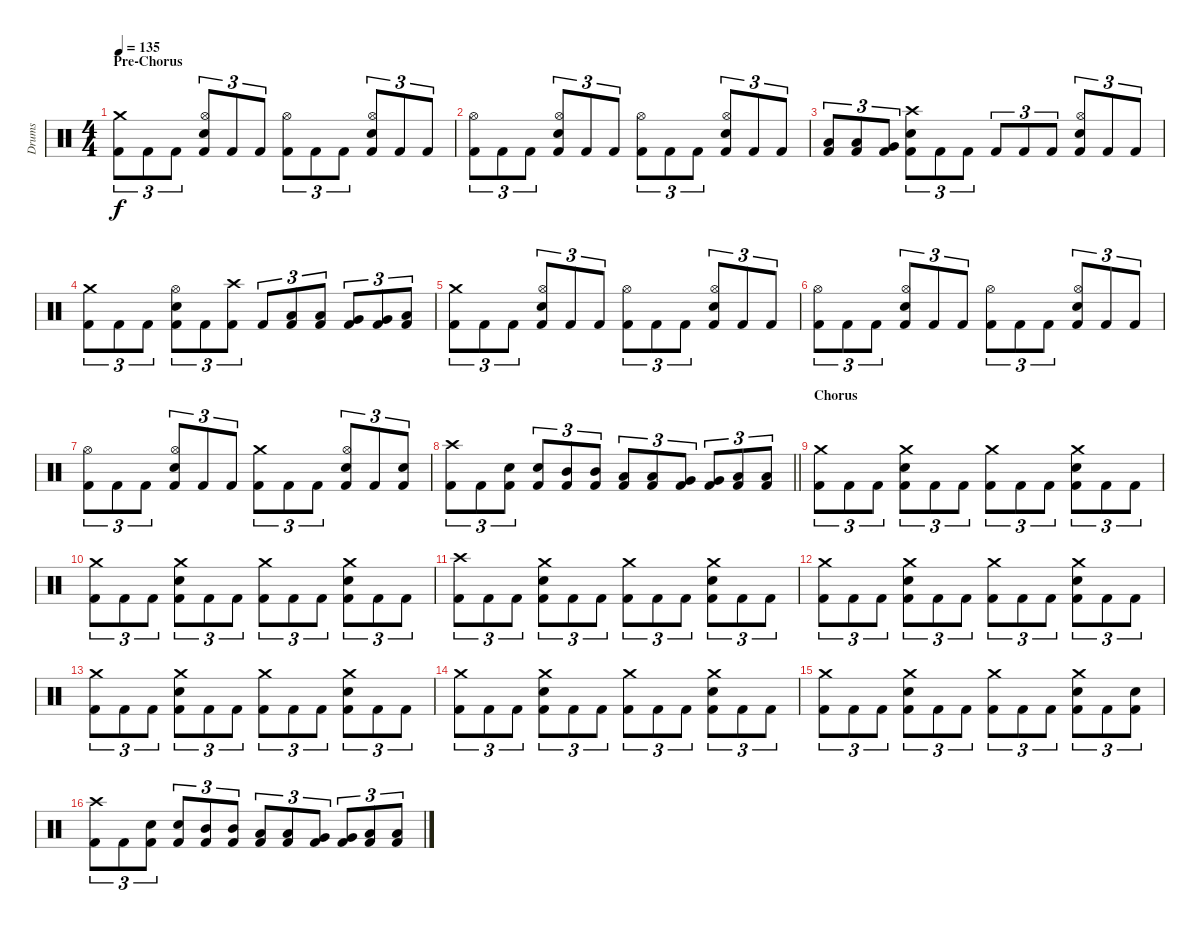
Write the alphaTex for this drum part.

\track ("Drums" "Drums") {instrument percussion}
\staff {score}
\articulation defaults
\ts (4 4)
\section ("" "Pre-Chorus")
\tempo 135
\clef neutral
\ks c
("Crash medium (hit)" "Kick (hit) 2").8{tu (3 2) dy f} "Kick (hit) 2".8{tu (3 2)} "Kick (hit) 2".8{tu (3 2)} ("Hi-Hat (open)" "Electric Snare (hit)" "Kick (hit) 2").8{tu (3 2)} "Kick (hit) 2".8{tu (3 2)} "Kick (hit) 2".8{tu (3 2)} ("Hi-Hat (open)" "Kick (hit) 2").8{tu (3 2)} "Kick (hit) 2".8{tu (3 2)} "Kick (hit) 2".8{tu (3 2)} ("Hi-Hat (open)" "Electric Snare (hit)" "Kick (hit) 2").8{tu (3 2)} "Kick (hit) 2".8{tu (3 2)} "Kick (hit) 2".8{tu (3 2)} |
("Hi-Hat (open)" "Kick (hit) 2").8{tu (3 2)} "Kick (hit) 2".8{tu (3 2)} "Kick (hit) 2".8{tu (3 2)} ("Hi-Hat (open)" "Electric Snare (hit)" "Kick (hit) 2").8{tu (3 2)} "Kick (hit) 2".8{tu (3 2)} "Kick (hit) 2".8{tu (3 2)} ("Hi-Hat (open)" "Kick (hit) 2").8{tu (3 2)} "Kick (hit) 2".8{tu (3 2)} "Kick (hit) 2".8{tu (3 2)} ("Hi-Hat (open)" "Electric Snare (hit)" "Kick (hit) 2").8{tu (3 2)} "Kick (hit) 2".8{tu (3 2)} "Kick (hit) 2".8{tu (3 2)} |
("Low Tom (hit)" "Kick (hit) 2").8{tu (3 2)} ("Low Tom (hit)" "Kick (hit) 2").8{tu (3 2)} ("Very Low Tom (hit)" "Kick (hit) 2").8{tu (3 2)} ("Crash high (hit)" "Electric Snare (hit)" "Kick (hit) 2").8{tu (3 2)} "Kick (hit) 2".8{tu (3 2)} "Kick (hit) 2".8{tu (3 2)} "Kick (hit) 2".8{tu (3 2)} "Kick (hit) 2".8{tu (3 2)} "Kick (hit) 2".8{tu (3 2)} ("Hi-Hat (open)" "Electric Snare (hit)" "Kick (hit) 2").8{tu (3 2)} "Kick (hit) 2".8{tu (3 2)} "Kick (hit) 2".8{tu (3 2)} |
("Crash medium (hit)" "Kick (hit) 2").8{tu (3 2)} "Kick (hit) 2".8{tu (3 2)} "Kick (hit) 2".8{tu (3 2)} ("Hi-Hat (open)" "Electric Snare (hit)" "Kick (hit) 2").8{tu (3 2)} "Kick (hit) 2".8{tu (3 2)} ("Crash high (hit)" "Kick (hit) 2").8{tu (3 2)} "Kick (hit) 2".8{tu (3 2)} ("Low Tom (hit)" "Kick (hit) 2").8{tu (3 2)} ("Low Tom (hit)" "Kick (hit) 2").8{tu (3 2)} ("Very Low Tom (hit)" "Kick (hit) 2").8{tu (3 2)} ("Very Low Tom (hit)" "Kick (hit) 2").8{tu (3 2)} ("Low Floor Tom (hit)" "Kick (hit) 2").8{tu (3 2)} |
("Crash medium (hit)" "Kick (hit) 2").8{tu (3 2)} "Kick (hit) 2".8{tu (3 2)} "Kick (hit) 2".8{tu (3 2)} ("Hi-Hat (open)" "Electric Snare (hit)" "Kick (hit) 2").8{tu (3 2)} "Kick (hit) 2".8{tu (3 2)} "Kick (hit) 2".8{tu (3 2)} ("Hi-Hat (open)" "Kick (hit) 2").8{tu (3 2)} "Kick (hit) 2".8{tu (3 2)} "Kick (hit) 2".8{tu (3 2)} ("Hi-Hat (open)" "Electric Snare (hit)" "Kick (hit) 2").8{tu (3 2)} "Kick (hit) 2".8{tu (3 2)} "Kick (hit) 2".8{tu (3 2)} |
("Hi-Hat (open)" "Kick (hit) 2").8{tu (3 2)} "Kick (hit) 2".8{tu (3 2)} "Kick (hit) 2".8{tu (3 2)} ("Hi-Hat (open)" "Electric Snare (hit)" "Kick (hit) 2").8{tu (3 2)} "Kick (hit) 2".8{tu (3 2)} "Kick (hit) 2".8{tu (3 2)} ("Hi-Hat (open)" "Kick (hit) 2").8{tu (3 2)} "Kick (hit) 2".8{tu (3 2)} "Kick (hit) 2".8{tu (3 2)} ("Hi-Hat (open)" "Electric Snare (hit)" "Kick (hit) 2").8{tu (3 2)} "Kick (hit) 2".8{tu (3 2)} "Kick (hit) 2".8{tu (3 2)} |
("Hi-Hat (open)" "Kick (hit) 2").8{tu (3 2)} "Kick (hit) 2".8{tu (3 2)} "Kick (hit) 2".8{tu (3 2)} ("Hi-Hat (open)" "Electric Snare (hit)" "Kick (hit) 2").8{tu (3 2)} "Kick (hit) 2".8{tu (3 2)} "Kick (hit) 2".8{tu (3 2)} ("Crash medium (hit)" "Kick (hit) 2").8{tu (3 2)} "Kick (hit) 2".8{tu (3 2)} "Kick (hit) 2".8{tu (3 2)} ("Hi-Hat (open)" "Electric Snare (hit)" "Kick (hit) 2").8{tu (3 2)} "Kick (hit) 2".8{tu (3 2)} ("Electric Snare (hit)" "Kick (hit) 2").8{tu (3 2)} |
\barLineRight lightlight
("Crash high (hit)" "Kick (hit) 2").8{tu (3 2)} "Kick (hit) 2".8{tu (3 2)} ("Electric Snare (hit)" "Kick (hit) 2").8{tu (3 2)} ("Electric Snare (hit)" "Kick (hit) 2").8{tu (3 2)} ("Mid Tom (hit)" "Kick (hit) 2").8{tu (3 2)} ("Mid Tom (hit)" "Kick (hit) 2").8{tu (3 2)} ("Low Tom (hit)" "Kick (hit) 2").8{tu (3 2)} ("Low Tom (hit)" "Kick (hit) 2").8{tu (3 2)} ("Very Low Tom (hit)" "Kick (hit) 2").8{tu (3 2)} ("Very Low Tom (hit)" "Kick (hit) 2").8{tu (3 2)} ("Low Floor Tom (hit)" "Kick (hit) 2").8{tu (3 2)} ("Low Floor Tom (hit)" "Kick (hit) 2").8{tu (3 2)} |
\section ("" "Chorus")
("Crash medium (hit)" "Kick (hit) 2").8{tu (3 2)} "Kick (hit) 2".8{tu (3 2)} "Kick (hit) 2".8{tu (3 2)} ("Crash medium (hit)" "Electric Snare (hit)" "Kick (hit) 2").8{tu (3 2)} "Kick (hit) 2".8{tu (3 2)} "Kick (hit) 2".8{tu (3 2)} ("Crash medium (hit)" "Kick (hit) 2").8{tu (3 2)} "Kick (hit) 2".8{tu (3 2)} "Kick (hit) 2".8{tu (3 2)} ("Crash medium (hit)" "Electric Snare (hit)" "Kick (hit) 2").8{tu (3 2)} "Kick (hit) 2".8{tu (3 2)} "Kick (hit) 2".8{tu (3 2)} |
("Crash medium (hit)" "Kick (hit) 2").8{tu (3 2)} "Kick (hit) 2".8{tu (3 2)} "Kick (hit) 2".8{tu (3 2)} ("Crash medium (hit)" "Electric Snare (hit)" "Kick (hit) 2").8{tu (3 2)} "Kick (hit) 2".8{tu (3 2)} "Kick (hit) 2".8{tu (3 2)} ("Crash medium (hit)" "Kick (hit) 2").8{tu (3 2)} "Kick (hit) 2".8{tu (3 2)} "Kick (hit) 2".8{tu (3 2)} ("Crash medium (hit)" "Electric Snare (hit)" "Kick (hit) 2").8{tu (3 2)} "Kick (hit) 2".8{tu (3 2)} "Kick (hit) 2".8{tu (3 2)} |
("Crash high (hit)" "Kick (hit) 2").8{tu (3 2)} "Kick (hit) 2".8{tu (3 2)} "Kick (hit) 2".8{tu (3 2)} ("Crash medium (hit)" "Electric Snare (hit)" "Kick (hit) 2").8{tu (3 2)} "Kick (hit) 2".8{tu (3 2)} "Kick (hit) 2".8{tu (3 2)} ("Crash medium (hit)" "Kick (hit) 2").8{tu (3 2)} "Kick (hit) 2".8{tu (3 2)} "Kick (hit) 2".8{tu (3 2)} ("Crash medium (hit)" "Electric Snare (hit)" "Kick (hit) 2").8{tu (3 2)} "Kick (hit) 2".8{tu (3 2)} "Kick (hit) 2".8{tu (3 2)} |
("Crash medium (hit)" "Kick (hit) 2").8{tu (3 2)} "Kick (hit) 2".8{tu (3 2)} "Kick (hit) 2".8{tu (3 2)} ("Crash medium (hit)" "Electric Snare (hit)" "Kick (hit) 2").8{tu (3 2)} "Kick (hit) 2".8{tu (3 2)} "Kick (hit) 2".8{tu (3 2)} ("Crash medium (hit)" "Kick (hit) 2").8{tu (3 2)} "Kick (hit) 2".8{tu (3 2)} "Kick (hit) 2".8{tu (3 2)} ("Crash medium (hit)" "Electric Snare (hit)" "Kick (hit) 2").8{tu (3 2)} "Kick (hit) 2".8{tu (3 2)} "Kick (hit) 2".8{tu (3 2)} |
("Crash medium (hit)" "Kick (hit) 2").8{tu (3 2)} "Kick (hit) 2".8{tu (3 2)} "Kick (hit) 2".8{tu (3 2)} ("Crash medium (hit)" "Electric Snare (hit)" "Kick (hit) 2").8{tu (3 2)} "Kick (hit) 2".8{tu (3 2)} "Kick (hit) 2".8{tu (3 2)} ("Crash medium (hit)" "Kick (hit) 2").8{tu (3 2)} "Kick (hit) 2".8{tu (3 2)} "Kick (hit) 2".8{tu (3 2)} ("Crash medium (hit)" "Electric Snare (hit)" "Kick (hit) 2").8{tu (3 2)} "Kick (hit) 2".8{tu (3 2)} "Kick (hit) 2".8{tu (3 2)} |
("Crash medium (hit)" "Kick (hit) 2").8{tu (3 2)} "Kick (hit) 2".8{tu (3 2)} "Kick (hit) 2".8{tu (3 2)} ("Crash medium (hit)" "Electric Snare (hit)" "Kick (hit) 2").8{tu (3 2)} "Kick (hit) 2".8{tu (3 2)} "Kick (hit) 2".8{tu (3 2)} ("Crash medium (hit)" "Kick (hit) 2").8{tu (3 2)} "Kick (hit) 2".8{tu (3 2)} "Kick (hit) 2".8{tu (3 2)} ("Crash medium (hit)" "Electric Snare (hit)" "Kick (hit) 2").8{tu (3 2)} "Kick (hit) 2".8{tu (3 2)} "Kick (hit) 2".8{tu (3 2)} |
("Crash medium (hit)" "Kick (hit) 2").8{tu (3 2)} "Kick (hit) 2".8{tu (3 2)} "Kick (hit) 2".8{tu (3 2)} ("Crash medium (hit)" "Electric Snare (hit)" "Kick (hit) 2").8{tu (3 2)} "Kick (hit) 2".8{tu (3 2)} "Kick (hit) 2".8{tu (3 2)} ("Crash medium (hit)" "Kick (hit) 2").8{tu (3 2)} "Kick (hit) 2".8{tu (3 2)} "Kick (hit) 2".8{tu (3 2)} ("Crash medium (hit)" "Electric Snare (hit)" "Kick (hit) 2").8{tu (3 2)} "Kick (hit) 2".8{tu (3 2)} ("Electric Snare (hit)" "Kick (hit) 2").8{tu (3 2)} |
("Crash high (hit)" "Kick (hit) 2").8{tu (3 2)} "Kick (hit) 2".8{tu (3 2)} ("Electric Snare (hit)" "Kick (hit) 2").8{tu (3 2)} ("Electric Snare (hit)" "Kick (hit) 2").8{tu (3 2)} ("Mid Tom (hit)" "Kick (hit) 2").8{tu (3 2)} ("Mid Tom (hit)" "Kick (hit) 2").8{tu (3 2)} ("Low Tom (hit)" "Kick (hit) 2").8{tu (3 2)} ("Low Tom (hit)" "Kick (hit) 2").8{tu (3 2)} ("Very Low Tom (hit)" "Kick (hit) 2").8{tu (3 2)} ("Very Low Tom (hit)" "Kick (hit) 2").8{tu (3 2)} ("Low Floor Tom (hit)" "Kick (hit) 2").8{tu (3 2)} ("Low Floor Tom (hit)" "Kick (hit) 2").8{tu (3 2)}
